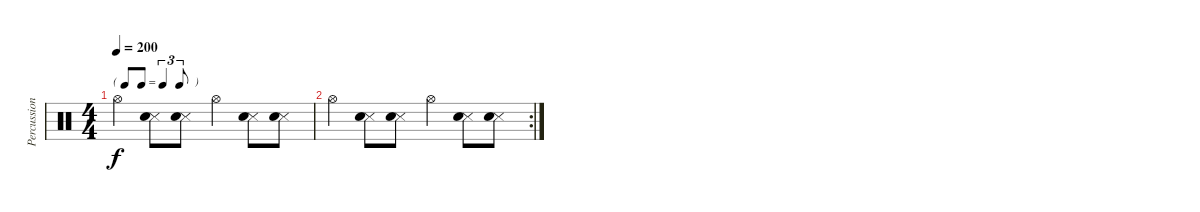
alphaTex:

\track ("Percussion" "Percussion") {instrument percussion}
\staff {score}
\articulation defaults
\ts (4 4)
\tf triplet8th
\tempo 200
\clef neutral
\ks c "Hi-Hat (open)".4{dy f}
("Snare (side stick) 3" "Hand Clap (hit)").8 ("Snare (side stick) 3" "Hand Clap (hit)").8 "Hi-Hat (open)".4 ("Snare (side stick) 3" "Hand Clap (hit)").8 ("Snare (side stick) 3" "Hand Clap (hit)").8 |
\rc 2 "Hi-Hat (open)".4
("Snare (side stick) 3" "Hand Clap (hit)").8 ("Snare (side stick) 3" "Hand Clap (hit)").8 "Hi-Hat (open)".4 ("Snare (side stick) 3" "Hand Clap (hit)").8 ("Snare (side stick) 3" "Hand Clap (hit)").8
